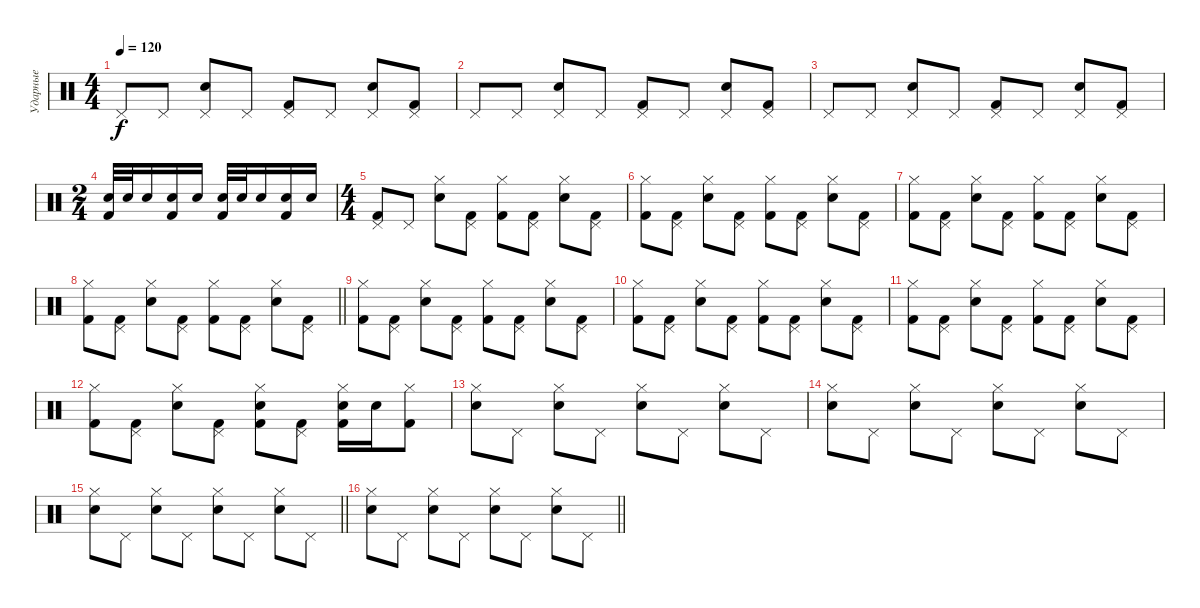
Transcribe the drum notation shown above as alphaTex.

\track ("Ударные" "Ударные") {instrument percussion}
\staff {score}
\articulation defaults
\ts (4 4)
\tempo 120
\clef neutral
\ks c "Pedal Hi-Hat (hit)".8{dy f} "Pedal Hi-Hat (hit)".8
("Snare (hit) 2" "Pedal Hi-Hat (hit)").8 "Pedal Hi-Hat (hit)".8 ("Kick (hit) 2" "Pedal Hi-Hat (hit)").8 "Pedal Hi-Hat (hit)".8 ("Snare (hit) 2" "Pedal Hi-Hat (hit)").8 ("Kick (hit) 2" "Pedal Hi-Hat (hit)").8 |
"Pedal Hi-Hat (hit)".8 "Pedal Hi-Hat (hit)".8 ("Snare (hit) 2" "Pedal Hi-Hat (hit)").8 "Pedal Hi-Hat (hit)".8 ("Kick (hit) 2" "Pedal Hi-Hat (hit)").8 "Pedal Hi-Hat (hit)".8 ("Snare (hit) 2" "Pedal Hi-Hat (hit)").8 ("Kick (hit) 2" "Pedal Hi-Hat (hit)").8 |
"Pedal Hi-Hat (hit)".8 "Pedal Hi-Hat (hit)".8 ("Snare (hit) 2" "Pedal Hi-Hat (hit)").8 "Pedal Hi-Hat (hit)".8 ("Kick (hit) 2" "Pedal Hi-Hat (hit)").8 "Pedal Hi-Hat (hit)".8 ("Snare (hit) 2" "Pedal Hi-Hat (hit)").8 ("Kick (hit) 2" "Pedal Hi-Hat (hit)").8 |
\ts (2 4)
("Kick (hit) 2" "Snare (hit) 2").32 "Snare (hit) 2".32 "Snare (hit) 2".16 ("Kick (hit) 2" "Snare (hit) 2").16 "Snare (hit) 2".16 ("Kick (hit) 2" "Snare (hit) 2").32 "Snare (hit) 2".32 "Snare (hit) 2".16 ("Kick (hit) 2" "Snare (hit) 2").16 "Snare (hit) 2".16 |
\ts (4 4)
("Kick (hit) 2" "Pedal Hi-Hat (hit)").8 "Pedal Hi-Hat (hit)".8 ("Snare (hit) 2" "Hi-Hat (closed)").8 ("Kick (hit) 2" "Pedal Hi-Hat (hit)").8 ("Kick (hit) 2" "Hi-Hat (closed)").8 ("Kick (hit) 2" "Pedal Hi-Hat (hit)").8 ("Snare (hit) 2" "Hi-Hat (closed)").8 ("Kick (hit) 2" "Pedal Hi-Hat (hit)").8 |
("Kick (hit) 2" "Hi-Hat (closed)").8 ("Kick (hit) 2" "Pedal Hi-Hat (hit)").8 ("Snare (hit) 2" "Hi-Hat (closed)").8 ("Kick (hit) 2" "Pedal Hi-Hat (hit)").8 ("Kick (hit) 2" "Hi-Hat (closed)").8 ("Kick (hit) 2" "Pedal Hi-Hat (hit)").8 ("Snare (hit) 2" "Hi-Hat (closed)").8 ("Kick (hit) 2" "Pedal Hi-Hat (hit)").8 |
("Kick (hit) 2" "Hi-Hat (closed)").8 ("Kick (hit) 2" "Pedal Hi-Hat (hit)").8 ("Snare (hit) 2" "Hi-Hat (closed)").8 ("Kick (hit) 2" "Pedal Hi-Hat (hit)").8 ("Kick (hit) 2" "Hi-Hat (closed)").8 ("Kick (hit) 2" "Pedal Hi-Hat (hit)").8 ("Snare (hit) 2" "Hi-Hat (closed)").8 ("Kick (hit) 2" "Pedal Hi-Hat (hit)").8 |
\barLineRight lightlight
("Kick (hit) 2" "Hi-Hat (closed)").8 ("Kick (hit) 2" "Pedal Hi-Hat (hit)").8 ("Snare (hit) 2" "Hi-Hat (closed)").8 ("Kick (hit) 2" "Pedal Hi-Hat (hit)").8 ("Kick (hit) 2" "Hi-Hat (closed)").8 ("Kick (hit) 2" "Pedal Hi-Hat (hit)").8 ("Snare (hit) 2" "Hi-Hat (closed)").8 ("Kick (hit) 2" "Pedal Hi-Hat (hit)").8 |
("Kick (hit) 2" "Hi-Hat (closed)").8 ("Kick (hit) 2" "Pedal Hi-Hat (hit)").8 ("Snare (hit) 2" "Hi-Hat (closed)").8 ("Kick (hit) 2" "Pedal Hi-Hat (hit)").8 ("Kick (hit) 2" "Hi-Hat (closed)").8 ("Kick (hit) 2" "Pedal Hi-Hat (hit)").8 ("Snare (hit) 2" "Hi-Hat (closed)").8 ("Kick (hit) 2" "Pedal Hi-Hat (hit)").8 |
("Kick (hit) 2" "Hi-Hat (closed)").8 ("Kick (hit) 2" "Pedal Hi-Hat (hit)").8 ("Snare (hit) 2" "Hi-Hat (closed)").8 ("Kick (hit) 2" "Pedal Hi-Hat (hit)").8 ("Kick (hit) 2" "Hi-Hat (closed)").8 ("Kick (hit) 2" "Pedal Hi-Hat (hit)").8 ("Snare (hit) 2" "Hi-Hat (closed)").8 ("Kick (hit) 2" "Pedal Hi-Hat (hit)").8 |
("Kick (hit) 2" "Hi-Hat (closed)").8 ("Kick (hit) 2" "Pedal Hi-Hat (hit)").8 ("Snare (hit) 2" "Hi-Hat (closed)").8 ("Kick (hit) 2" "Pedal Hi-Hat (hit)").8 ("Kick (hit) 2" "Hi-Hat (closed)").8 ("Kick (hit) 2" "Pedal Hi-Hat (hit)").8 ("Snare (hit) 2" "Hi-Hat (closed)").8 ("Kick (hit) 2" "Pedal Hi-Hat (hit)").8 |
("Kick (hit) 2" "Hi-Hat (closed)").8 ("Kick (hit) 2" "Pedal Hi-Hat (hit)").8 ("Snare (hit) 2" "Hi-Hat (closed)").8 ("Kick (hit) 2" "Pedal Hi-Hat (hit)").8 ("Kick (hit) 2" "Snare (hit) 2" "Hi-Hat (closed)").8 ("Kick (hit) 2" "Pedal Hi-Hat (hit)").8 ("Kick (hit) 2" "Snare (hit) 2" "Hi-Hat (closed)").16 "Snare (hit) 2".16 ("Kick (hit) 2" "Hi-Hat (closed)").8 |
("Snare (hit) 2" "Hi-Hat (closed)").8 "Pedal Hi-Hat (hit)".8 ("Snare (hit) 2" "Hi-Hat (closed)").8 "Pedal Hi-Hat (hit)".8 ("Snare (hit) 2" "Hi-Hat (closed)").8 "Pedal Hi-Hat (hit)".8 ("Snare (hit) 2" "Hi-Hat (closed)").8 "Pedal Hi-Hat (hit)".8 |
("Snare (hit) 2" "Hi-Hat (closed)").8 "Pedal Hi-Hat (hit)".8 ("Snare (hit) 2" "Hi-Hat (closed)").8 "Pedal Hi-Hat (hit)".8 ("Snare (hit) 2" "Hi-Hat (closed)").8 "Pedal Hi-Hat (hit)".8 ("Snare (hit) 2" "Hi-Hat (closed)").8 "Pedal Hi-Hat (hit)".8 |
\barLineRight lightlight
("Snare (hit) 2" "Hi-Hat (closed)").8 "Pedal Hi-Hat (hit)".8 ("Snare (hit) 2" "Hi-Hat (closed)").8 "Pedal Hi-Hat (hit)".8 ("Snare (hit) 2" "Hi-Hat (closed)").8 "Pedal Hi-Hat (hit)".8 ("Snare (hit) 2" "Hi-Hat (closed)").8 "Pedal Hi-Hat (hit)".8 |
\barLineRight lightlight
("Snare (hit) 2" "Hi-Hat (closed)").8 "Pedal Hi-Hat (hit)".8 ("Snare (hit) 2" "Hi-Hat (closed)").8 "Pedal Hi-Hat (hit)".8 ("Snare (hit) 2" "Hi-Hat (closed)").8 "Pedal Hi-Hat (hit)".8 ("Snare (hit) 2" "Hi-Hat (closed)").8 "Pedal Hi-Hat (hit)".8
